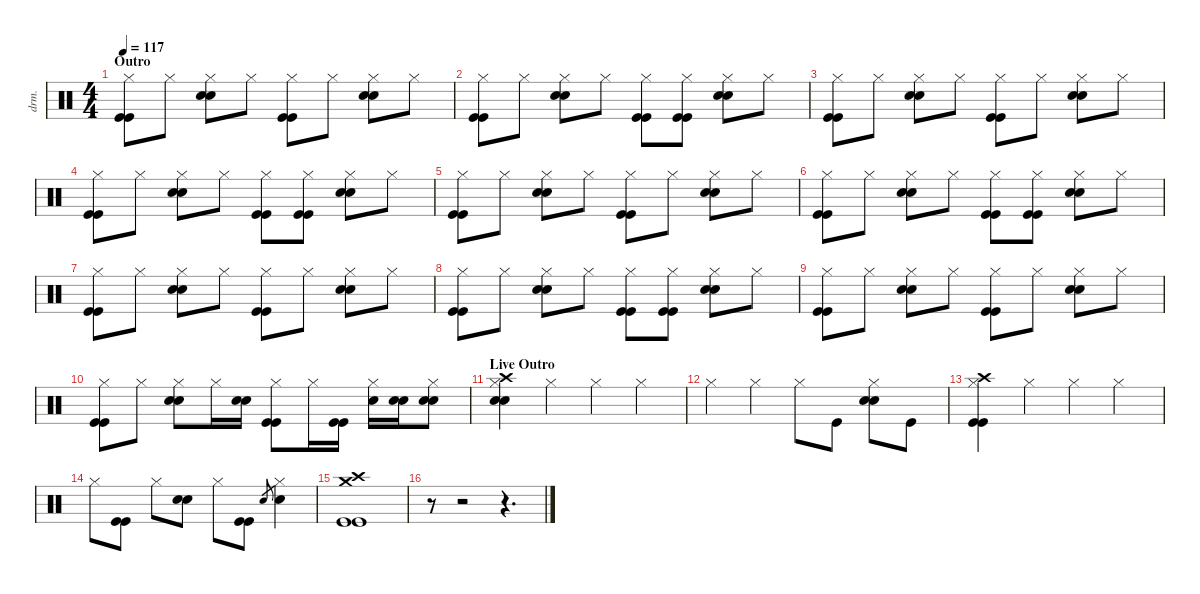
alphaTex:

\defaultSystemsLayout 4
\hideDynamics
\bracketExtendMode nobrackets
\otherSystemsTrackNameOrientation horizontal
\track ("Drums" "drm.") {instrument percussion}
\staff {score}
\articulation defaults
\ts (4 4)
\section ("" "Outro")
\tempo 117
\clef neutral
\ks c
("Kick (hit)" "Kick (hit)" "Hi-Hat (closed)").8{dy f beam Down} "Hi-Hat (closed)".8{beam Down} ("Snare (hit) 2" "Snare (hit) 2" "Hi-Hat (closed)").8{dy mf beam Down} "Hi-Hat (closed)".8{dy f beam Down} ("Kick (hit)" "Kick (hit)" "Hi-Hat (closed)").8{beam Down} "Hi-Hat (closed)".8{beam Down} ("Snare (hit) 2" "Snare (hit) 2" "Hi-Hat (closed)").8{dy mf beam Down} "Hi-Hat (closed)".8{dy f beam Down} |
("Kick (hit)" "Kick (hit)" "Hi-Hat (closed)").8{beam Down} "Hi-Hat (closed)".8{beam Down} ("Snare (hit) 2" "Snare (hit) 2" "Hi-Hat (closed)").8{dy mf beam Down} "Hi-Hat (closed)".8{dy f beam Down} ("Kick (hit)" "Kick (hit)" "Hi-Hat (closed)").8{beam Down} ("Kick (hit)" "Kick (hit)" "Hi-Hat (closed)").8{beam Down} ("Snare (hit) 2" "Snare (hit) 2" "Hi-Hat (closed)").8{dy mf beam Down} "Hi-Hat (closed)".8{dy f beam Down} |
("Kick (hit)" "Kick (hit)" "Hi-Hat (closed)").8{beam Down} "Hi-Hat (closed)".8{beam Down} ("Snare (hit) 2" "Snare (hit) 2" "Hi-Hat (closed)").8{dy mf beam Down} "Hi-Hat (closed)".8{dy f beam Down} ("Kick (hit)" "Kick (hit)" "Hi-Hat (closed)").8{beam Down} "Hi-Hat (closed)".8{beam Down} ("Snare (hit) 2" "Snare (hit) 2" "Hi-Hat (closed)").8{dy mf beam Down} "Hi-Hat (closed)".8{dy f beam Down} |
("Kick (hit)" "Kick (hit)" "Hi-Hat (closed)").8{beam Down} "Hi-Hat (closed)".8{beam Down} ("Snare (hit) 2" "Snare (hit) 2" "Hi-Hat (closed)").8{dy mf beam Down} "Hi-Hat (closed)".8{dy f beam Down} ("Kick (hit)" "Kick (hit)" "Hi-Hat (closed)").8{beam Down} ("Kick (hit)" "Kick (hit)" "Hi-Hat (closed)").8{beam Down} ("Snare (hit) 2" "Snare (hit) 2" "Hi-Hat (closed)").8{dy mf beam Down} "Hi-Hat (closed)".8{dy f beam Down} |
("Kick (hit)" "Kick (hit)" "Hi-Hat (closed)").8{beam Down} "Hi-Hat (closed)".8{beam Down} ("Snare (hit) 2" "Snare (hit) 2" "Hi-Hat (closed)").8{dy mf beam Down} "Hi-Hat (closed)".8{dy f beam Down} ("Kick (hit)" "Kick (hit)" "Hi-Hat (closed)").8{beam Down} "Hi-Hat (closed)".8{beam Down} ("Snare (hit) 2" "Snare (hit) 2" "Hi-Hat (closed)").8{dy mf beam Down} "Hi-Hat (closed)".8{dy f beam Down} |
("Kick (hit)" "Kick (hit)" "Hi-Hat (closed)").8{beam Down} "Hi-Hat (closed)".8{beam Down} ("Snare (hit) 2" "Snare (hit) 2" "Hi-Hat (closed)").8{dy mf beam Down} "Hi-Hat (closed)".8{dy f beam Down} ("Kick (hit)" "Kick (hit)" "Hi-Hat (closed)").8{beam Down} ("Kick (hit)" "Kick (hit)" "Hi-Hat (closed)").8{beam Down} ("Snare (hit) 2" "Snare (hit) 2" "Hi-Hat (closed)").8{dy mf beam Down} "Hi-Hat (closed)".8{dy f beam Down} |
("Kick (hit)" "Kick (hit)" "Hi-Hat (closed)").8{beam Down} "Hi-Hat (closed)".8{beam Down} ("Snare (hit) 2" "Snare (hit) 2" "Hi-Hat (closed)").8{dy mf beam Down} "Hi-Hat (closed)".8{dy f beam Down} ("Kick (hit)" "Kick (hit)" "Hi-Hat (closed)").8{beam Down} "Hi-Hat (closed)".8{beam Down} ("Snare (hit) 2" "Snare (hit) 2" "Hi-Hat (closed)").8{dy mf beam Down} "Hi-Hat (closed)".8{dy f beam Down} |
("Kick (hit)" "Kick (hit)" "Hi-Hat (closed)").8{beam Down} "Hi-Hat (closed)".8{beam Down} ("Snare (hit) 2" "Snare (hit) 2" "Hi-Hat (closed)").8{beam Down} "Hi-Hat (closed)".8{beam Down} ("Kick (hit)" "Kick (hit)" "Hi-Hat (closed)").8{beam Down} ("Kick (hit)" "Kick (hit)" "Hi-Hat (closed)").8{beam Down} ("Snare (hit) 2" "Snare (hit) 2" "Hi-Hat (closed)").8{beam Down} "Hi-Hat (closed)".8{beam Down} |
("Kick (hit)" "Kick (hit)" "Hi-Hat (closed)").8{beam Down} "Hi-Hat (closed)".8{beam Down} ("Snare (hit) 2" "Snare (hit) 2" "Hi-Hat (closed)").8{beam Down} "Hi-Hat (closed)".8{beam Down} ("Kick (hit)" "Kick (hit)" "Hi-Hat (closed)").8{beam Down} "Hi-Hat (closed)".8{beam Down} ("Snare (hit) 2" "Snare (hit) 2" "Hi-Hat (closed)").8{beam Down} "Hi-Hat (closed)".8{beam Down} |
("Kick (hit)" "Kick (hit)" "Hi-Hat (closed)").8{beam Down} "Hi-Hat (closed)".8{beam Down} ("Snare (hit) 2" "Snare (hit) 2" "Hi-Hat (closed)").8{beam Down} "Hi-Hat (closed)".16{beam Down} ("Snare (hit) 2" "Snare (hit) 2").16{beam Down} ("Kick (hit)" "Kick (hit)" "Hi-Hat (closed)").8{beam Down} "Hi-Hat (closed)".16{beam Down} ("Kick (hit)" "Kick (hit)").16{beam Down} ("Snare (hit) 2" "Hi-Hat (closed)").16{beam Down} ("Snare (hit) 2" "Snare (hit) 2").16{dy mf beam Down} ("Snare (hit) 2" "Snare (hit) 2" "Hi-Hat (closed)").8{dy f beam Down} |
\section ("" "Live Outro")
("Crash high (hit)" "Hi-Hat (closed)" "Snare (hit) 2" "Snare (hit) 2").4{beam Down} "Hi-Hat (closed)".4{beam Down} "Hi-Hat (closed)".4{beam Down} "Hi-Hat (closed)".4{beam Down} |
"Hi-Hat (closed)".4{beam Down} "Hi-Hat (closed)".4{beam Down} "Hi-Hat (closed)".8{beam Down} "Kick (hit)".8{beam Down} ("Snare (hit) 2" "Snare (hit) 2" "Hi-Hat (closed)").8{beam Down} "Kick (hit)".8{beam Down} |
("Crash high (hit)" "Hi-Hat (closed)" "Kick (hit)" "Kick (hit)").4{beam Down} "Hi-Hat (closed)".4{beam Down} "Hi-Hat (closed)".4{beam Down} "Hi-Hat (closed)".4{beam Down} |
"Hi-Hat (closed)".8{beam Down} ("Kick (hit)" "Kick (hit)").8{beam Down} "Hi-Hat (closed)".8{beam Down} ("Snare (hit) 2" "Snare (hit) 2").8{beam Down} "Hi-Hat (closed)".8{beam Down} ("Kick (hit)" "Kick (hit)").8{beam Down} "Snare (hit) 2".8{gr dy p beam Up} ("Hi-Hat (closed)" "Snare (hit) 2").4{dy f beam Down} |
("Crash high (hit)" "Crash medium (hit)" "Kick (hit)" "Kick (hit)").1{beam Down} |
r.8{beam Down} r.2{beam Down} r.4{d beam Down}
